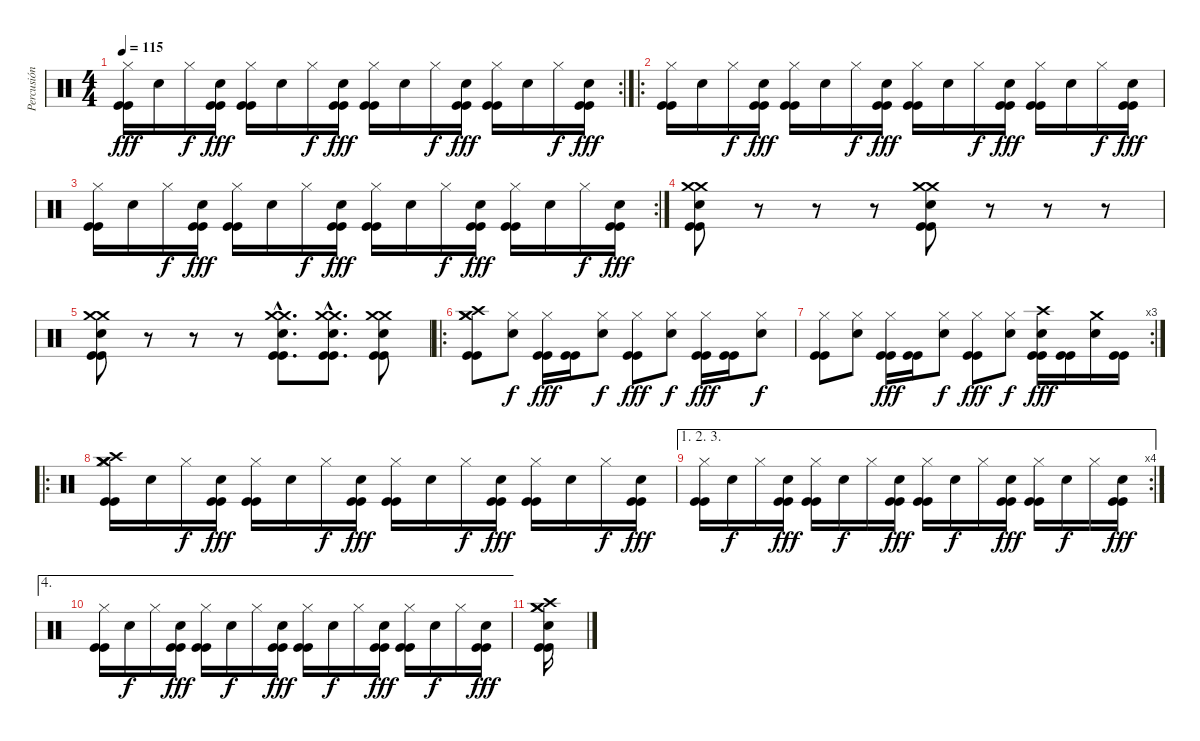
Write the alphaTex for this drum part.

\track ("Percusión" "Percusión") {instrument percussion}
\staff {score}
\articulation defaults
\rc 2
\ts (4 4)
\tempo 115
\clef neutral
\ks c
("Kick (hit)" "Kick (hit)" "Hi-Hat (closed)").16{dy fff} "Electric Snare (hit)".16 "Hi-Hat (closed)".16{dy f} ("Kick (hit)" "Kick (hit)" "Electric Snare (hit)").16{dy fff} ("Kick (hit)" "Kick (hit)" "Hi-Hat (closed)").16 "Electric Snare (hit)".16 "Hi-Hat (closed)".16{dy f} ("Kick (hit)" "Kick (hit)" "Electric Snare (hit)").16{dy fff} ("Kick (hit)" "Kick (hit)" "Hi-Hat (closed)").16 "Electric Snare (hit)".16 "Hi-Hat (closed)".16{dy f} ("Kick (hit)" "Kick (hit)" "Electric Snare (hit)").16{dy fff} ("Kick (hit)" "Kick (hit)" "Hi-Hat (closed)").16 "Electric Snare (hit)".16 "Hi-Hat (closed)".16{dy f} ("Kick (hit)" "Kick (hit)" "Electric Snare (hit)").16{dy fff} |
\ro
("Kick (hit)" "Kick (hit)" "Hi-Hat (closed)").16 "Electric Snare (hit)".16 "Hi-Hat (closed)".16{dy f} ("Kick (hit)" "Kick (hit)" "Electric Snare (hit)").16{dy fff} ("Kick (hit)" "Kick (hit)" "Hi-Hat (closed)").16 "Electric Snare (hit)".16 "Hi-Hat (closed)".16{dy f} ("Kick (hit)" "Kick (hit)" "Electric Snare (hit)").16{dy fff} ("Kick (hit)" "Kick (hit)" "Hi-Hat (closed)").16 "Electric Snare (hit)".16 "Hi-Hat (closed)".16{dy f} ("Kick (hit)" "Kick (hit)" "Electric Snare (hit)").16{dy fff} ("Kick (hit)" "Kick (hit)" "Hi-Hat (closed)").16 "Electric Snare (hit)".16 "Hi-Hat (closed)".16{dy f} ("Kick (hit)" "Kick (hit)" "Electric Snare (hit)").16{dy fff} |
\rc 2
("Kick (hit)" "Kick (hit)" "Hi-Hat (closed)").16 "Electric Snare (hit)".16 "Hi-Hat (closed)".16{dy f} ("Kick (hit)" "Kick (hit)" "Electric Snare (hit)").16{dy fff} ("Kick (hit)" "Kick (hit)" "Hi-Hat (closed)").16 "Electric Snare (hit)".16 "Hi-Hat (closed)".16{dy f} ("Kick (hit)" "Kick (hit)" "Electric Snare (hit)").16{dy fff} ("Kick (hit)" "Kick (hit)" "Hi-Hat (closed)").16 "Electric Snare (hit)".16 "Hi-Hat (closed)".16{dy f} ("Kick (hit)" "Kick (hit)" "Electric Snare (hit)").16{dy fff} ("Kick (hit)" "Kick (hit)" "Hi-Hat (closed)").16 "Electric Snare (hit)".16 "Hi-Hat (closed)".16{dy f} ("Kick (hit)" "Kick (hit)" "Electric Snare (hit)").16{dy fff} |
("Kick (hit)" "Kick (hit)" "Crash medium (hit)" "Crash medium (hit)" "Electric Snare (hit)").8 r.8 r.8 r.8 ("Kick (hit)" "Kick (hit)" "Crash medium (hit)" "Crash medium (hit)" "Electric Snare (hit)").8 r.8 r.8 r.8 |
("Kick (hit)" "Kick (hit)" "Crash medium (hit)" "Crash medium (hit)" "Electric Snare (hit)").8 r.8 r.8 r.8 ("Kick (hit)"{hac} "Kick (hit)"{hac} "Crash medium (hit)"{hac} "Crash medium (hit)"{hac} "Electric Snare (hit)"{hac}).8{d} ("Kick (hit)"{hac} "Kick (hit)"{hac} "Crash medium (hit)"{hac} "Crash medium (hit)"{hac} "Electric Snare (hit)"{hac}).8{d} ("Kick (hit)" "Kick (hit)" "Crash medium (hit)" "Crash medium (hit)" "Electric Snare (hit)").8 |
\ro
("Kick (hit)" "Kick (hit)" "Crash medium (hit)" "Crash medium (hit)" "Crash high (hit)").8 ("Hi-Hat (closed)" "Electric Snare (hit)").8{dy f} ("Kick (hit)" "Kick (hit)" "Hi-Hat (closed)").16{dy fff} ("Kick (hit)" "Kick (hit)").16 ("Hi-Hat (closed)" "Electric Snare (hit)").8{dy f} ("Kick (hit)" "Kick (hit)" "Hi-Hat (closed)").8{dy fff} ("Hi-Hat (closed)" "Electric Snare (hit)").8{dy f} ("Kick (hit)" "Kick (hit)" "Hi-Hat (closed)").16{dy fff} ("Kick (hit)" "Kick (hit)").16 ("Hi-Hat (closed)" "Electric Snare (hit)").8{dy f} |
\rc 3
("Kick (hit)" "Kick (hit)" "Hi-Hat (closed)").8 ("Hi-Hat (closed)" "Electric Snare (hit)").8 ("Kick (hit)" "Kick (hit)" "Hi-Hat (closed)").16{dy fff} ("Kick (hit)" "Kick (hit)").16 ("Hi-Hat (closed)" "Electric Snare (hit)").8{dy f} ("Kick (hit)" "Kick (hit)" "Hi-Hat (closed)").8{dy fff} ("Hi-Hat (closed)" "Electric Snare (hit)").8{dy f} ("Kick (hit)" "Kick (hit)" "Crash high (hit)" "Electric Snare (hit)").16{dy fff} ("Kick (hit)" "Kick (hit)").16 ("Crash medium (hit)" "Electric Snare (hit)").16 ("Kick (hit)" "Kick (hit)").16 |
\ro
("Kick (hit)" "Kick (hit)" "Crash medium (hit)" "Crash medium (hit)" "Crash high (hit)" "Hi-Hat (closed)").16 "Electric Snare (hit)".16 "Hi-Hat (closed)".16{dy f} ("Kick (hit)" "Kick (hit)" "Electric Snare (hit)").16{dy fff} ("Kick (hit)" "Kick (hit)" "Hi-Hat (closed)").16 "Electric Snare (hit)".16 "Hi-Hat (closed)".16{dy f} ("Kick (hit)" "Kick (hit)" "Electric Snare (hit)").16{dy fff} ("Kick (hit)" "Kick (hit)" "Hi-Hat (closed)").16 "Electric Snare (hit)".16 "Hi-Hat (closed)".16{dy f} ("Kick (hit)" "Kick (hit)" "Electric Snare (hit)").16{dy fff} ("Kick (hit)" "Kick (hit)" "Hi-Hat (closed)").16 "Electric Snare (hit)".16 "Hi-Hat (closed)".16{dy f} ("Kick (hit)" "Kick (hit)" "Electric Snare (hit)").16{dy fff} |
\ae (1 2 3)
\rc 4
("Kick (hit)" "Kick (hit)" "Hi-Hat (closed)").16 "Electric Snare (hit)".16{dy f} "Hi-Hat (closed)".16 ("Kick (hit)" "Kick (hit)" "Electric Snare (hit)").16{dy fff} ("Kick (hit)" "Kick (hit)" "Hi-Hat (closed)").16 "Electric Snare (hit)".16{dy f} "Hi-Hat (closed)".16 ("Kick (hit)" "Kick (hit)" "Electric Snare (hit)").16{dy fff} ("Kick (hit)" "Kick (hit)" "Hi-Hat (closed)").16 "Electric Snare (hit)".16{dy f} "Hi-Hat (closed)".16 ("Kick (hit)" "Kick (hit)" "Electric Snare (hit)").16{dy fff} ("Kick (hit)" "Kick (hit)" "Hi-Hat (closed)").16 "Electric Snare (hit)".16{dy f} "Hi-Hat (closed)".16 ("Kick (hit)" "Kick (hit)" "Electric Snare (hit)").16{dy fff} |
\ae 4
("Kick (hit)" "Kick (hit)" "Hi-Hat (closed)").16 "Electric Snare (hit)".16{dy f} "Hi-Hat (closed)".16 ("Kick (hit)" "Kick (hit)" "Electric Snare (hit)").16{dy fff} ("Kick (hit)" "Kick (hit)" "Hi-Hat (closed)").16 "Electric Snare (hit)".16{dy f} "Hi-Hat (closed)".16 ("Kick (hit)" "Kick (hit)" "Electric Snare (hit)").16{dy fff} ("Kick (hit)" "Kick (hit)" "Hi-Hat (closed)").16 "Electric Snare (hit)".16{dy f} "Hi-Hat (closed)".16 ("Kick (hit)" "Kick (hit)" "Electric Snare (hit)").16{dy fff} ("Kick (hit)" "Kick (hit)" "Hi-Hat (closed)").16 "Electric Snare (hit)".16{dy f} "Hi-Hat (closed)".16 ("Kick (hit)" "Kick (hit)" "Electric Snare (hit)").16{dy fff} |
("Kick (hit)" "Kick (hit)" "Crash medium (hit)" "Crash medium (hit)" "Crash high (hit)" "Electric Snare (hit)").16
